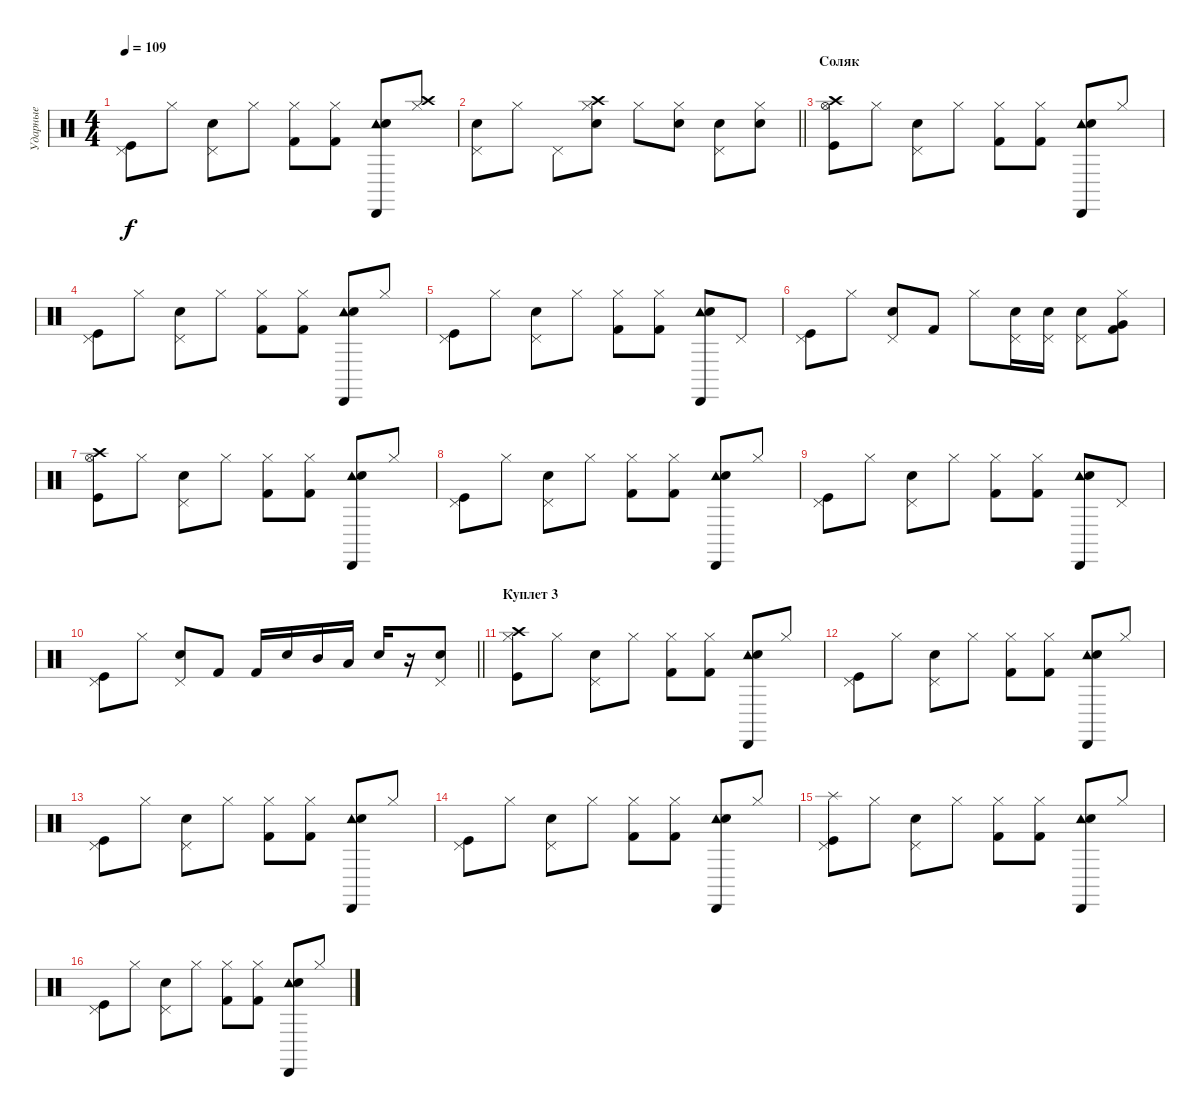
\track ("Ударные" "Ударные") {instrument percussion}
\staff {score}
\articulation defaults
\ts (4 4)
\tempo 109
\clef neutral
\ks c
("Pedal Hi-Hat (hit)" "Kick (hit)").8{dy f} "Hi-Hat (closed)".8 ("Pedal Hi-Hat (hit)" "Snare (hit) 2").8 "Hi-Hat (closed)".8 ("Hi-Hat (closed)" "Kick (hit) 2").8 ("Hi-Hat (closed)" "Kick (hit) 2").8 ("Tambourine (hit)" "Cabasa (hit)" "Snare (hit) 2").8 ("Hi-Hat (closed)" "Crash high (hit)").8 |
\barLineRight lightlight
("Pedal Hi-Hat (hit)" "Snare (hit) 2").8 "Hi-Hat (closed)".8 "Pedal Hi-Hat (hit)".8 ("Hi-Hat (closed)" "Crash high (hit)" "Snare (hit) 2").8 "Hi-Hat (closed)".8 ("Hi-Hat (closed)" "Snare (hit) 2").8 ("Pedal Hi-Hat (hit)" "Snare (hit) 2").8 ("Hi-Hat (closed)" "Snare (hit) 2").8 |
\section ("" "Соляк")
("Hi-Hat (open)" "Crash high (hit)" "Kick (hit)").8 "Hi-Hat (closed)".8 ("Pedal Hi-Hat (hit)" "Snare (hit) 2").8 "Hi-Hat (closed)".8 ("Hi-Hat (closed)" "Kick (hit) 2").8 ("Hi-Hat (closed)" "Kick (hit) 2").8 ("Tambourine (hit)" "Cabasa (hit)" "Snare (hit) 2").8 "Hi-Hat (closed)".8 |
("Pedal Hi-Hat (hit)" "Kick (hit)").8 "Hi-Hat (closed)".8 ("Pedal Hi-Hat (hit)" "Snare (hit) 2").8 "Hi-Hat (closed)".8 ("Hi-Hat (closed)" "Kick (hit) 2").8 ("Hi-Hat (closed)" "Kick (hit) 2").8 ("Tambourine (hit)" "Cabasa (hit)" "Snare (hit) 2").8 "Hi-Hat (closed)".8 |
("Pedal Hi-Hat (hit)" "Kick (hit)").8 "Hi-Hat (closed)".8 ("Pedal Hi-Hat (hit)" "Snare (hit) 2").8 "Hi-Hat (closed)".8 ("Hi-Hat (closed)" "Kick (hit) 2").8 ("Hi-Hat (closed)" "Kick (hit) 2").8 ("Tambourine (hit)" "Cabasa (hit)" "Snare (hit) 2").8 "Pedal Hi-Hat (hit)".8 |
("Pedal Hi-Hat (hit)" "Kick (hit)").8 "Hi-Hat (closed)".8 ("Pedal Hi-Hat (hit)" "Snare (hit) 2").8 "Kick (hit) 2".8 "Hi-Hat (closed)".8 ("Pedal Hi-Hat (hit)" "Snare (hit) 2").16 ("Pedal Hi-Hat (hit)" "Snare (hit) 2").16 ("Pedal Hi-Hat (hit)" "Snare (hit) 2").8 ("Hi-Hat (closed)" "Very Low Tom (hit)" "Kick (hit) 2").8 |
("Hi-Hat (open)" "Crash high (hit)" "Kick (hit)").8 "Hi-Hat (closed)".8 ("Pedal Hi-Hat (hit)" "Snare (hit) 2").8 "Hi-Hat (closed)".8 ("Hi-Hat (closed)" "Kick (hit) 2").8 ("Hi-Hat (closed)" "Kick (hit) 2").8 ("Tambourine (hit)" "Cabasa (hit)" "Snare (hit) 2").8 "Hi-Hat (closed)".8 |
("Pedal Hi-Hat (hit)" "Kick (hit)").8 "Hi-Hat (closed)".8 ("Pedal Hi-Hat (hit)" "Snare (hit) 2").8 "Hi-Hat (closed)".8 ("Hi-Hat (closed)" "Kick (hit) 2").8 ("Hi-Hat (closed)" "Kick (hit) 2").8 ("Tambourine (hit)" "Cabasa (hit)" "Snare (hit) 2").8 "Hi-Hat (closed)".8 |
("Pedal Hi-Hat (hit)" "Kick (hit)").8 "Hi-Hat (closed)".8 ("Pedal Hi-Hat (hit)" "Snare (hit) 2").8 "Hi-Hat (closed)".8 ("Hi-Hat (closed)" "Kick (hit) 2").8 ("Hi-Hat (closed)" "Kick (hit) 2").8 ("Tambourine (hit)" "Cabasa (hit)" "Snare (hit) 2").8 "Pedal Hi-Hat (hit)".8 |
\barLineRight lightlight
("Pedal Hi-Hat (hit)" "Kick (hit)").8 "Hi-Hat (closed)".8 ("Pedal Hi-Hat (hit)" "Snare (hit) 2").8 "Kick (hit) 2".8 "Kick (hit) 2".16 "Electric Snare (hit)".16 "Mid Tom (hit)".16 "Low Floor Tom (hit)".16 "Electric Snare (hit)".16 r.16 ("Pedal Hi-Hat (hit)" "Snare (hit) 2").8 |
\section ("" "Куплет 3 ")
("Hi-Hat (closed)" "Crash high (hit)" "Kick (hit)").8 "Hi-Hat (closed)".8 ("Pedal Hi-Hat (hit)" "Snare (hit) 2").8 "Hi-Hat (closed)".8 ("Hi-Hat (closed)" "Kick (hit) 2").8 ("Hi-Hat (closed)" "Kick (hit) 2").8 ("Tambourine (hit)" "Cabasa (hit)" "Snare (hit) 2").8 "Hi-Hat (closed)".8 |
("Pedal Hi-Hat (hit)" "Kick (hit)").8 "Hi-Hat (closed)".8 ("Pedal Hi-Hat (hit)" "Snare (hit) 2").8 "Hi-Hat (closed)".8 ("Hi-Hat (closed)" "Kick (hit) 2").8 ("Hi-Hat (closed)" "Kick (hit) 2").8 ("Tambourine (hit)" "Cabasa (hit)" "Snare (hit) 2").8 "Hi-Hat (closed)".8 |
("Pedal Hi-Hat (hit)" "Kick (hit)").8 "Hi-Hat (closed)".8 ("Pedal Hi-Hat (hit)" "Snare (hit) 2").8 "Hi-Hat (closed)".8 ("Hi-Hat (closed)" "Kick (hit) 2").8 ("Hi-Hat (closed)" "Kick (hit) 2").8 ("Tambourine (hit)" "Cabasa (hit)" "Snare (hit) 2").8 "Hi-Hat (closed)".8 |
("Pedal Hi-Hat (hit)" "Kick (hit)").8 "Hi-Hat (closed)".8 ("Pedal Hi-Hat (hit)" "Snare (hit) 2").8 "Hi-Hat (closed)".8 ("Hi-Hat (closed)" "Kick (hit) 2").8 ("Hi-Hat (closed)" "Kick (hit) 2").8 ("Tambourine (hit)" "Cabasa (hit)" "Snare (hit) 2").8 "Hi-Hat (closed)".8 |
("Pedal Hi-Hat (hit)" "Splash (hit)" "Kick (hit)").8 "Hi-Hat (closed)".8 ("Pedal Hi-Hat (hit)" "Snare (hit) 2").8 "Hi-Hat (closed)".8 ("Hi-Hat (closed)" "Kick (hit) 2").8 ("Hi-Hat (closed)" "Kick (hit) 2").8 ("Tambourine (hit)" "Cabasa (hit)" "Snare (hit) 2").8 "Hi-Hat (closed)".8 |
("Pedal Hi-Hat (hit)" "Kick (hit)").8 "Hi-Hat (closed)".8 ("Pedal Hi-Hat (hit)" "Snare (hit) 2").8 "Hi-Hat (closed)".8 ("Hi-Hat (closed)" "Kick (hit) 2").8 ("Hi-Hat (closed)" "Kick (hit) 2").8 ("Tambourine (hit)" "Cabasa (hit)" "Snare (hit) 2").8 "Hi-Hat (closed)".8
